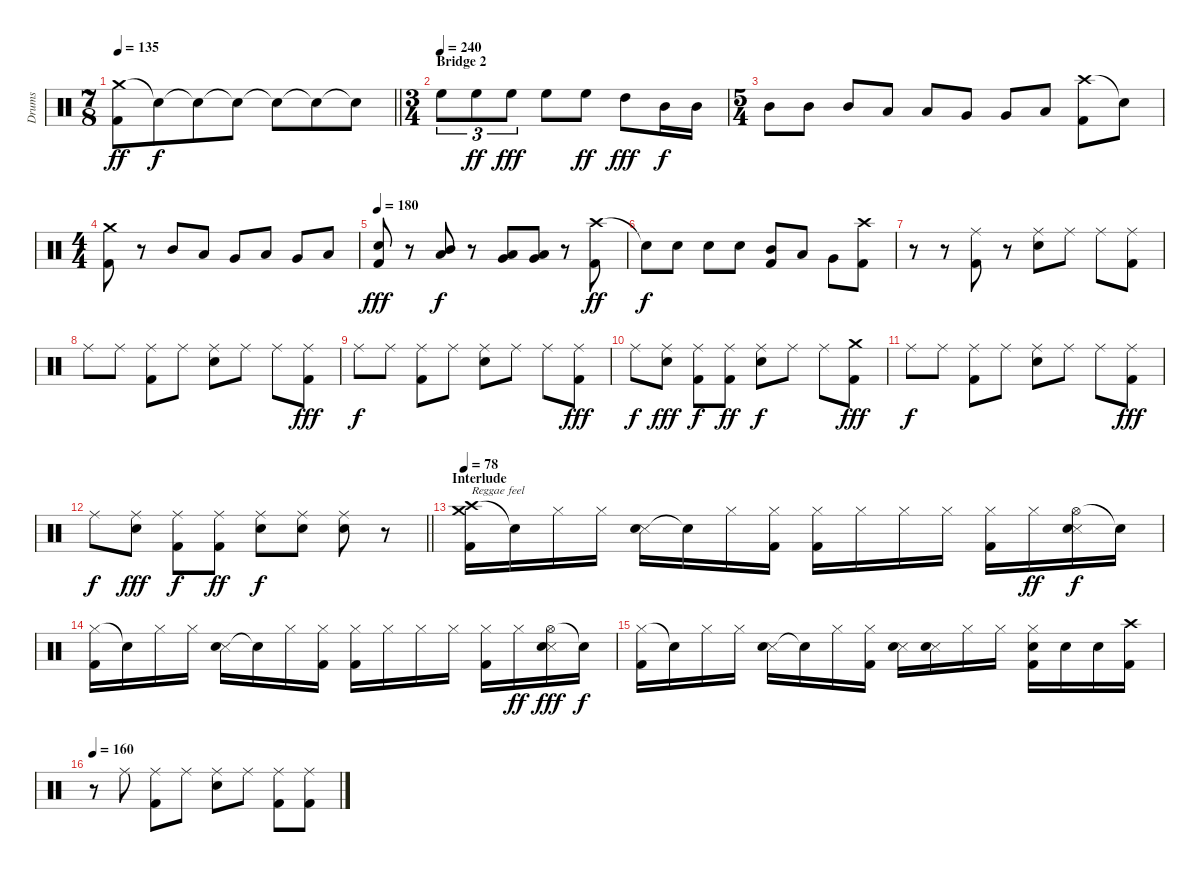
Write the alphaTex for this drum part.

\track ("Drums" "Drums") {instrument percussion}
\staff {score}
\articulation defaults
\ts (7 8)
\tempo 135
\clef neutral
\barLineRight lightlight
\ks c
("Crash medium (hit)" "Kick (hit) 2").8{dy ff} "Snare (hit)"{t}.8{dy f} "Snare (hit)"{t}.8 "Snare (hit)"{t}.8 "Snare (hit)"{t}.8 "Snare (hit)"{t}.8 "Snare (hit)"{t}.8 |
\ts (3 4)
\section ("" "Bridge 2")
\tempo (240)
"High Floor Tom (hit)".8{tu (3 2)} "High Floor Tom (hit)".8{tu (3 2) dy ff} "High Floor Tom (hit)".8{tu (3 2) dy fff} "High Floor Tom (hit)".8 "High Floor Tom (hit)".8{dy ff} "High Tom (hit)".8{dy fff} "Mid Tom (hit)".16{dy f} "Mid Tom (hit)".16 |
\ts (5 4)
"Mid Tom (hit)".8 "Mid Tom (hit)".8 "Mid Tom (hit)".8 "Low Tom (hit)".8 "Low Tom (hit)".8 "Very Low Tom (hit)".8 "Very Low Tom (hit)".8 "Low Floor Tom (hit)".8 ("Crash high (hit)" "Kick (hit) 2").8 "Snare (hit)"{t}.8 |
\ts (4 4)
("Crash medium (hit)" "Kick (hit) 2").8 r.8 "Mid Tom (hit)".8 "Low Tom (hit)".8 "Very Low Tom (hit)".8 "Low Tom (hit)".8 "Very Low Tom (hit)".8 "Low Floor Tom (hit)".8 |
\tempo 180
("Snare (hit) 2" "Kick (hit) 2").8{dy fff} r.8 ("Mid Tom (hit)" "Low Tom (hit)").8{dy f} r.8 ("Low Tom (hit)" "Very Low Tom (hit)").8 ("Low Tom (hit)" "Very Low Tom (hit)").8 r.8 ("Crash high (hit)" "Kick (hit) 2").8{dy ff} |
"Snare (hit)"{t}.8{dy f} "Snare (hit) 2".8 "Snare (hit) 2".8 "Snare (hit) 2".8 ("Mid Tom (hit)" "Kick (hit) 2").8 "Low Tom (hit)".8 "Very Low Tom (hit)".8 ("Crash high (hit)" "Kick (hit) 2").8 |
r.8 r.8 ("Ride (middle)" "Kick (hit) 2").8 r.8 ("Ride (middle)" "Snare (hit) 2").8 "Ride (middle)".8 "Ride (middle)".8 ("Ride (middle)" "Kick (hit) 2").8 |
"Ride (middle)".8 "Ride (middle)".8 ("Ride (middle)" "Kick (hit) 2").8 "Ride (middle)".8 ("Ride (middle)" "Snare (hit) 2").8 "Ride (middle)".8 "Ride (middle)".8 ("Ride (middle)" "Kick (hit) 2").8{dy fff} |
"Ride (middle)".8{dy f} "Ride (middle)".8 ("Ride (middle)" "Kick (hit) 2").8 "Ride (middle)".8 ("Ride (middle)" "Snare (hit) 2").8 "Ride (middle)".8 "Ride (middle)".8 ("Ride (middle)" "Kick (hit) 2").8{dy fff} |
"Ride (middle)".8{dy f} ("Ride (middle)" "Snare (hit) 2").8{dy fff} ("Ride (middle)" "Kick (hit) 2").8{dy f} ("Ride (middle)" "Kick (hit) 2").8{dy ff} ("Ride (middle)" "Snare (hit) 2").8{dy f} "Ride (middle)".8 "Ride (middle)".8 ("Crash medium (hit)" "Kick (hit) 2").8{dy fff} |
"Ride (middle)".8{dy f} "Ride (middle)".8 ("Ride (middle)" "Kick (hit) 2").8 "Ride (middle)".8 ("Ride (middle)" "Snare (hit) 2").8 "Ride (middle)".8 "Ride (middle)".8 ("Ride (middle)" "Kick (hit) 2").8{dy fff} |
\barLineRight lightlight "Ride (middle)".8{dy f}
("Ride (middle)" "Snare (hit) 2").8{dy fff} ("Ride (middle)" "Kick (hit) 2").8{dy f} ("Ride (middle)" "Kick (hit) 2").8{dy ff} ("Ride (middle)" "Snare (hit) 2").8{dy f} ("Ride (middle)" "Snare (hit) 2").8 ("Ride (middle)" "Snare (hit) 2").8 r.8 |
\section ("" "Interlude")
\tempo 78
("Crash high (hit)" "Crash medium (hit)" "Kick (hit) 2").16{txt "Reggae feel"} "Snare (hit)"{t}.16 "Hi-Hat (closed)".16 "Hi-Hat (closed)".16 ("Snare (side stick) 3" "Electric Snare (hit)").16 "Snare (hit)"{t}.16 "Hi-Hat (closed)".16 ("Hi-Hat (closed)" "Kick (hit) 2").16 ("Hi-Hat (closed)" "Kick (hit) 2").16 "Hi-Hat (closed)".16 "Hi-Hat (closed)".16 "Hi-Hat (closed)".16 ("Hi-Hat (closed)" "Kick (hit) 2").16 "Hi-Hat (closed)".16{dy ff} ("Hi-Hat (open)" "Snare (side stick) 3" "Electric Snare (hit)").16{dy f} "Snare (hit)"{t}.16 |
("Hi-Hat (closed)" "Kick (hit) 2").16 "Snare (hit)"{t}.16 "Hi-Hat (closed)".16 "Hi-Hat (closed)".16 ("Snare (side stick) 3" "Electric Snare (hit)").16 "Snare (hit)"{t}.16 "Hi-Hat (closed)".16 ("Hi-Hat (closed)" "Kick (hit) 2").16 ("Hi-Hat (closed)" "Kick (hit) 2").16 "Hi-Hat (closed)".16 "Hi-Hat (closed)".16 "Hi-Hat (closed)".16 ("Hi-Hat (closed)" "Kick (hit) 2").16 "Hi-Hat (closed)".16{dy ff} ("Hi-Hat (open)" "Snare (side stick) 3" "Electric Snare (hit)").16{dy fff} "Snare (hit)"{t}.16{dy f} |
("Hi-Hat (closed)" "Kick (hit) 2").16 "Snare (hit)"{t}.16 "Hi-Hat (closed)".16 "Hi-Hat (closed)".16 ("Snare (side stick) 3" "Electric Snare (hit)").16 "Snare (hit)"{t}.16 "Hi-Hat (closed)".16 ("Hi-Hat (closed)" "Kick (hit) 2").16 ("Snare (side stick) 3" "Electric Snare (hit)").16 ("Snare (side stick) 3" "Electric Snare (hit)").16 "Hi-Hat (closed)".16 "Hi-Hat (closed)".16 ("Hi-Hat (closed)" "Snare (hit) 2" "Kick (hit) 2").16 "Snare (hit) 2".16 "Snare (hit) 2".16 ("Crash high (hit)" "Kick (hit) 2").16 |
\tempo 160
r.8 "Ride (middle)".8 ("Ride (middle)" "Kick (hit) 2").8 "Ride (middle)".8 ("Ride (middle)" "Snare (hit) 2").8 "Ride (middle)".8 ("Ride (middle)" "Kick (hit) 2").8 ("Ride (middle)" "Kick (hit) 2").8
